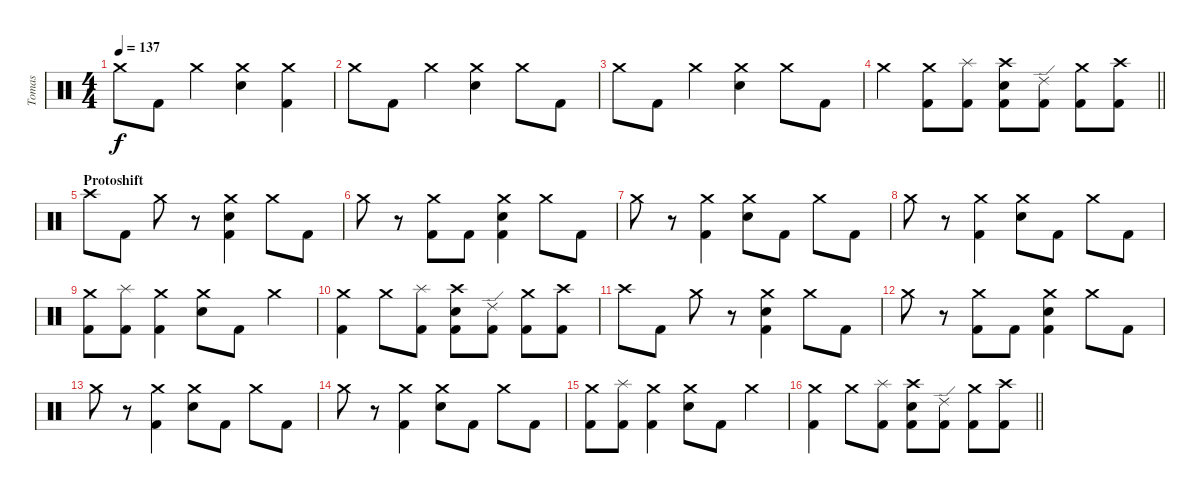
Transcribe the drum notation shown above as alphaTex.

\track ("Tomas" "Tomas") {instrument percussion}
\staff {score}
\articulation defaults
\ts (4 4)
\tempo 137
\clef neutral
\ks c "Crash medium (hit)".8{dy f} "Kick (hit) 2".8 "Crash medium (hit)".4
("Crash medium (hit)" "Electric Snare (hit)").4 ("Crash medium (hit)" "Kick (hit) 2").4 |
"Crash medium (hit)".8 "Kick (hit) 2".8 "Crash medium (hit)".4 ("Crash medium (hit)" "Electric Snare (hit)").4 "Crash medium (hit)".8 "Kick (hit) 2".8 |
"Crash medium (hit)".8 "Kick (hit) 2".8 "Crash medium (hit)".4 ("Crash medium (hit)" "Electric Snare (hit)").4 "Crash medium (hit)".8 "Kick (hit) 2".8 |
\barLineRight lightlight "Crash medium (hit)".4
("Crash medium (hit)" "Kick (hit) 2").8 ("Splash (hit)" "Kick (hit) 2").8 ("Crash high (hit)" "Electric Snare (hit)" "Kick (hit) 2").8 ("Ride (edge) 2" "Kick (hit) 2").8 ("Crash medium (hit)" "Kick (hit) 2").8 ("Crash high (hit)" "Kick (hit) 2").8 |
\section ("" "Protoshift")
"Crash high (hit)".8 "Kick (hit) 2".8 "Crash medium (hit)".8 r.8 ("Crash medium (hit)" "Electric Snare (hit)" "Kick (hit) 2").4 "Crash medium (hit)".8 "Kick (hit) 2".8 |
"Crash medium (hit)".8 r.8 ("Crash medium (hit)" "Kick (hit) 2").8 "Kick (hit) 2".8 ("Crash medium (hit)" "Electric Snare (hit)" "Kick (hit) 2").4 "Crash medium (hit)".8 "Kick (hit) 2".8 |
"Crash medium (hit)".8 r.8 ("Crash medium (hit)" "Kick (hit) 2").4 ("Crash medium (hit)" "Electric Snare (hit)").8 "Kick (hit) 2".8 "Crash medium (hit)".8 "Kick (hit) 2".8 |
"Crash medium (hit)".8 r.8 ("Crash medium (hit)" "Kick (hit) 2").4 ("Crash medium (hit)" "Electric Snare (hit)").8 "Kick (hit) 2".8 "Crash medium (hit)".8 "Kick (hit) 2".8 |
("Crash medium (hit)" "Kick (hit) 2").8 ("Splash (hit)" "Kick (hit) 2").8 ("Crash medium (hit)" "Kick (hit) 2").4 ("Crash medium (hit)" "Electric Snare (hit)").8 "Kick (hit) 2".8 "Crash medium (hit)".4 |
("Crash medium (hit)" "Kick (hit) 2").4 "Crash medium (hit)".8 ("Splash (hit)" "Kick (hit) 2").8 ("Crash high (hit)" "Electric Snare (hit)" "Kick (hit) 2").8 ("Ride (edge) 2" "Kick (hit) 2").8 ("Crash medium (hit)" "Kick (hit) 2").8 ("Crash high (hit)" "Kick (hit) 2").8 |
"Crash high (hit)".8 "Kick (hit) 2".8 "Crash medium (hit)".8 r.8 ("Crash medium (hit)" "Electric Snare (hit)" "Kick (hit) 2").4 "Crash medium (hit)".8 "Kick (hit) 2".8 |
"Crash medium (hit)".8 r.8 ("Crash medium (hit)" "Kick (hit) 2").8 "Kick (hit) 2".8 ("Crash medium (hit)" "Electric Snare (hit)" "Kick (hit) 2").4 "Crash medium (hit)".8 "Kick (hit) 2".8 |
"Crash medium (hit)".8 r.8 ("Crash medium (hit)" "Kick (hit) 2").4 ("Crash medium (hit)" "Electric Snare (hit)").8 "Kick (hit) 2".8 "Crash medium (hit)".8 "Kick (hit) 2".8 |
"Crash medium (hit)".8 r.8 ("Crash medium (hit)" "Kick (hit) 2").4 ("Crash medium (hit)" "Electric Snare (hit)").8 "Kick (hit) 2".8 "Crash medium (hit)".8 "Kick (hit) 2".8 |
("Crash medium (hit)" "Kick (hit) 2").8 ("Splash (hit)" "Kick (hit) 2").8 ("Crash medium (hit)" "Kick (hit) 2").4 ("Crash medium (hit)" "Electric Snare (hit)").8 "Kick (hit) 2".8 "Crash medium (hit)".4 |
\barLineRight lightlight
("Crash medium (hit)" "Kick (hit) 2").4 "Crash medium (hit)".8 ("Splash (hit)" "Kick (hit) 2").8 ("Crash high (hit)" "Electric Snare (hit)" "Kick (hit) 2").8 ("Ride (edge) 2" "Kick (hit) 2").8 ("Crash medium (hit)" "Kick (hit) 2").8 ("Crash high (hit)" "Kick (hit) 2").8
